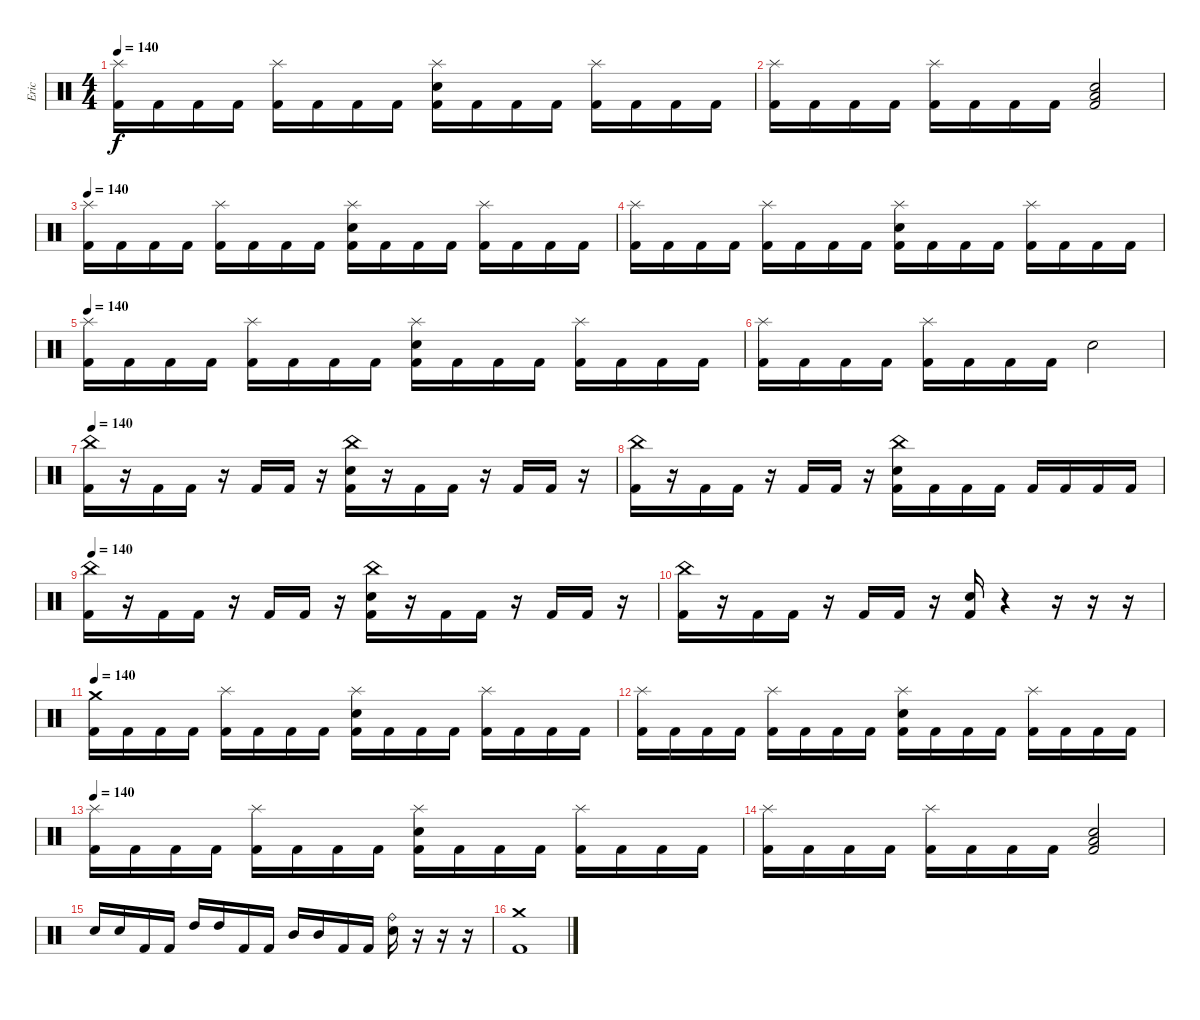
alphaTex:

\track ("Eric" "Eric") {instrument percussion}
\staff {score}
\articulation defaults
\ts (4 4)
\tempo 140
\clef neutral
\ks c
("Splash (hit)" "Kick (hit) 2").16{dy f} "Kick (hit) 2".16 "Kick (hit) 2".16 "Kick (hit) 2".16 ("Splash (hit)" "Kick (hit) 2").16 "Kick (hit) 2".16 "Kick (hit) 2".16 "Kick (hit) 2".16 ("Splash (hit)" "Electric Snare (hit)" "Kick (hit) 2").16 "Kick (hit) 2".16 "Kick (hit) 2".16 "Kick (hit) 2".16 ("Splash (hit)" "Kick (hit) 2").16 "Kick (hit) 2".16 "Kick (hit) 2".16 "Kick (hit) 2".16 |
("Splash (hit)" "Kick (hit) 2").16 "Kick (hit) 2".16 "Kick (hit) 2".16 "Kick (hit) 2".16 ("Splash (hit)" "Kick (hit) 2").16 "Kick (hit) 2".16 "Kick (hit) 2".16 "Kick (hit) 2".16 ("Low Tom (hit)" "Electric Snare (hit)" "Kick (hit) 2").2 |
\tempo 140
("Splash (hit)" "Kick (hit) 2").16 "Kick (hit) 2".16 "Kick (hit) 2".16 "Kick (hit) 2".16 ("Splash (hit)" "Kick (hit) 2").16 "Kick (hit) 2".16 "Kick (hit) 2".16 "Kick (hit) 2".16 ("Splash (hit)" "Electric Snare (hit)" "Kick (hit) 2").16 "Kick (hit) 2".16 "Kick (hit) 2".16 "Kick (hit) 2".16 ("Splash (hit)" "Kick (hit) 2").16 "Kick (hit) 2".16 "Kick (hit) 2".16 "Kick (hit) 2".16 |
("Splash (hit)" "Kick (hit) 2").16 "Kick (hit) 2".16 "Kick (hit) 2".16 "Kick (hit) 2".16 ("Splash (hit)" "Kick (hit) 2").16 "Kick (hit) 2".16 "Kick (hit) 2".16 "Kick (hit) 2".16 ("Splash (hit)" "Electric Snare (hit)" "Kick (hit) 2").16 "Kick (hit) 2".16 "Kick (hit) 2".16 "Kick (hit) 2".16 ("Splash (hit)" "Kick (hit) 2").16 "Kick (hit) 2".16 "Kick (hit) 2".16 "Kick (hit) 2".16 |
\tempo 140
("Splash (hit)" "Kick (hit) 2").16 "Kick (hit) 2".16 "Kick (hit) 2".16 "Kick (hit) 2".16 ("Splash (hit)" "Kick (hit) 2").16 "Kick (hit) 2".16 "Kick (hit) 2".16 "Kick (hit) 2".16 ("Splash (hit)" "Electric Snare (hit)" "Kick (hit) 2").16 "Kick (hit) 2".16 "Kick (hit) 2".16 "Kick (hit) 2".16 ("Splash (hit)" "Kick (hit) 2").16 "Kick (hit) 2".16 "Kick (hit) 2".16 "Kick (hit) 2".16 |
("Splash (hit)" "Kick (hit) 2").16 "Kick (hit) 2".16 "Kick (hit) 2".16 "Kick (hit) 2".16 ("Splash (hit)" "Kick (hit) 2").16 "Kick (hit) 2".16 "Kick (hit) 2".16 "Kick (hit) 2".16 "Electric Snare (hit)".2 |
\tempo 140
("China (hit)" "Kick (hit) 2").16 r.16 "Kick (hit) 2".16 "Kick (hit) 2".16 r.16 "Kick (hit) 2".16 "Kick (hit) 2".16 r.16 ("China (hit)" "Electric Snare (hit)" "Kick (hit) 2").16 r.16 "Kick (hit) 2".16 "Kick (hit) 2".16 r.16 "Kick (hit) 2".16 "Kick (hit) 2".16 r.16 |
("China (hit)" "Kick (hit) 2").16 r.16 "Kick (hit) 2".16 "Kick (hit) 2".16 r.16 "Kick (hit) 2".16 "Kick (hit) 2".16 r.16 ("China (hit)" "Electric Snare (hit)" "Kick (hit) 2").16 "Kick (hit) 2".16 "Kick (hit) 2".16 "Kick (hit) 2".16 "Kick (hit) 2".16 "Kick (hit) 2".16 "Kick (hit) 2".16 "Kick (hit) 2".16 |
\tempo 140
("China (hit)" "Kick (hit) 2").16 r.16 "Kick (hit) 2".16 "Kick (hit) 2".16 r.16 "Kick (hit) 2".16 "Kick (hit) 2".16 r.16 ("China (hit)" "Electric Snare (hit)" "Kick (hit) 2").16 r.16 "Kick (hit) 2".16 "Kick (hit) 2".16 r.16 "Kick (hit) 2".16 "Kick (hit) 2".16 r.16 |
("China (hit)" "Kick (hit) 2").16 r.16 "Kick (hit) 2".16 "Kick (hit) 2".16 r.16 "Kick (hit) 2".16 "Kick (hit) 2".16 r.16 ("Electric Snare (hit)" "Kick (hit) 2").16 r.4 r.16 r.16 r.16 |
\tempo 140
("Crash medium (hit)" "Kick (hit) 2").16 "Kick (hit) 2".16 "Kick (hit) 2".16 "Kick (hit) 2".16 ("Splash (hit)" "Kick (hit) 2").16 "Kick (hit) 2".16 "Kick (hit) 2".16 "Kick (hit) 2".16 ("Splash (hit)" "Electric Snare (hit)" "Kick (hit) 2").16 "Kick (hit) 2".16 "Kick (hit) 2".16 "Kick (hit) 2".16 ("Splash (hit)" "Kick (hit) 2").16 "Kick (hit) 2".16 "Kick (hit) 2".16 "Kick (hit) 2".16 |
("Splash (hit)" "Kick (hit) 2").16 "Kick (hit) 2".16 "Kick (hit) 2".16 "Kick (hit) 2".16 ("Splash (hit)" "Kick (hit) 2").16 "Kick (hit) 2".16 "Kick (hit) 2".16 "Kick (hit) 2".16 ("Splash (hit)" "Electric Snare (hit)" "Kick (hit) 2").16 "Kick (hit) 2".16 "Kick (hit) 2".16 "Kick (hit) 2".16 ("Splash (hit)" "Kick (hit) 2").16 "Kick (hit) 2".16 "Kick (hit) 2".16 "Kick (hit) 2".16 |
\tempo 140
("Splash (hit)" "Kick (hit) 2").16 "Kick (hit) 2".16 "Kick (hit) 2".16 "Kick (hit) 2".16 ("Splash (hit)" "Kick (hit) 2").16 "Kick (hit) 2".16 "Kick (hit) 2".16 "Kick (hit) 2".16 ("Splash (hit)" "Electric Snare (hit)" "Kick (hit) 2").16 "Kick (hit) 2".16 "Kick (hit) 2".16 "Kick (hit) 2".16 ("Splash (hit)" "Kick (hit) 2").16 "Kick (hit) 2".16 "Kick (hit) 2".16 "Kick (hit) 2".16 |
("Splash (hit)" "Kick (hit) 2").16 "Kick (hit) 2".16 "Kick (hit) 2".16 "Kick (hit) 2".16 ("Splash (hit)" "Kick (hit) 2").16 "Kick (hit) 2".16 "Kick (hit) 2".16 "Kick (hit) 2".16 ("Low Tom (hit)" "Electric Snare (hit)" "Kick (hit) 2").2 |
"Electric Snare (hit)".16 "Electric Snare (hit)".16 "Kick (hit) 2".16 "Kick (hit) 2".16 "High Tom (hit)".16 "High Tom (hit)".16 "Kick (hit) 2".16 "Kick (hit) 2".16 "Mid Tom (hit)".16 "Mid Tom (hit)".16 "Kick (hit) 2".16 "Kick (hit) 2".16 ("Ride (bell)" "Electric Snare (hit)").16 r.16 r.16 r.16 |
("Crash medium (hit)" "Kick (hit) 2").1
